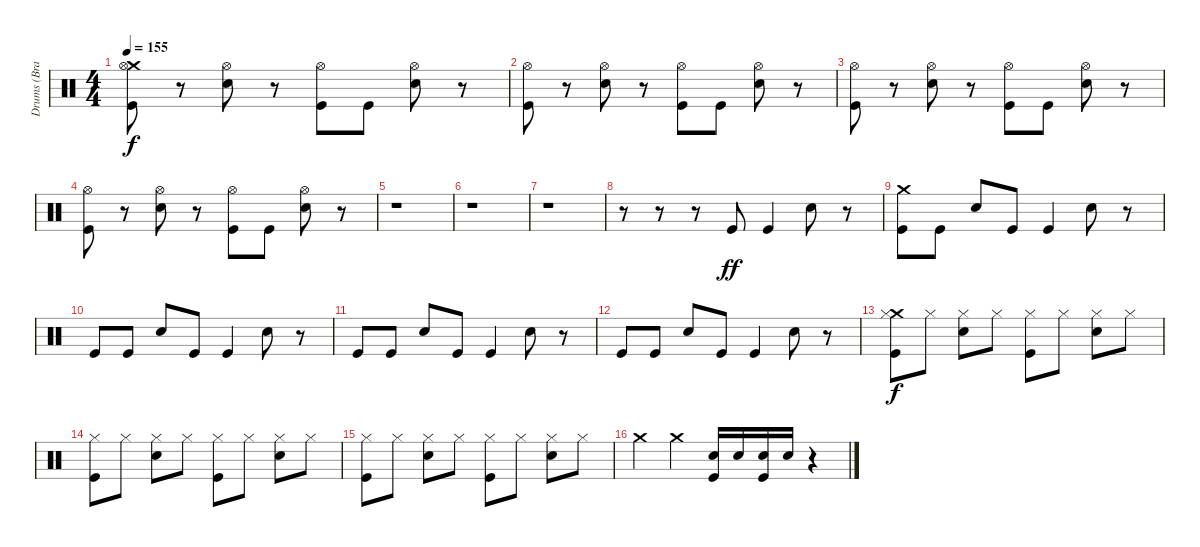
\track ("Drums (Bradie Webb)" "Drums (Bra") {instrument percussion}
\staff {score}
\articulation defaults
\ts (4 4)
\tempo 155
\clef neutral
\ks c
("Crash medium (hit)" "Hi-Hat (open)" "Kick (hit)").8{dy f} r.8 ("Hi-Hat (open)" "Snare (hit) 2").8 r.8 ("Hi-Hat (open)" "Kick (hit)").8 "Kick (hit)".8 ("Hi-Hat (open)" "Snare (hit) 2").8 r.8 |
("Hi-Hat (open)" "Kick (hit)").8 r.8 ("Hi-Hat (open)" "Snare (hit) 2").8 r.8 ("Hi-Hat (open)" "Kick (hit)").8 "Kick (hit)".8 ("Hi-Hat (open)" "Snare (hit) 2").8 r.8 |
("Hi-Hat (open)" "Kick (hit)").8 r.8 ("Hi-Hat (open)" "Snare (hit) 2").8 r.8 ("Hi-Hat (open)" "Kick (hit)").8 "Kick (hit)".8 ("Hi-Hat (open)" "Snare (hit) 2").8 r.8 |
("Hi-Hat (open)" "Kick (hit)").8 r.8 ("Hi-Hat (open)" "Snare (hit) 2").8 r.8 ("Hi-Hat (open)" "Kick (hit)").8 "Kick (hit)".8 ("Hi-Hat (open)" "Snare (hit) 2").8 r.8 |
r.1 |
r.1 |
r.1 |
r.8 r.8 r.8 "Kick (hit)".8{dy ff} "Kick (hit)".4 "Snare (hit) 2".8 r.8 |
("Crash medium (hit)" "Kick (hit)").8 "Kick (hit)".8 "Snare (hit) 2".8 "Kick (hit)".8 "Kick (hit)".4 "Snare (hit) 2".8 r.8 |
"Kick (hit)".8 "Kick (hit)".8 "Snare (hit) 2".8 "Kick (hit)".8 "Kick (hit)".4 "Snare (hit) 2".8 r.8 |
"Kick (hit)".8 "Kick (hit)".8 "Snare (hit) 2".8 "Kick (hit)".8 "Kick (hit)".4 "Snare (hit) 2".8 r.8 |
"Kick (hit)".8 "Kick (hit)".8 "Snare (hit) 2".8 "Kick (hit)".8 "Kick (hit)".4 "Snare (hit) 2".8 r.8 |
("Crash medium (hit)" "Hi-Hat (closed)" "Kick (hit)").8{dy f} "Hi-Hat (closed)".8 ("Hi-Hat (closed)" "Snare (hit) 2").8 "Hi-Hat (closed)".8 ("Hi-Hat (closed)" "Kick (hit)").8 "Hi-Hat (closed)".8 ("Hi-Hat (closed)" "Snare (hit) 2").8 "Hi-Hat (closed)".8 |
("Hi-Hat (closed)" "Kick (hit)").8 "Hi-Hat (closed)".8 ("Hi-Hat (closed)" "Snare (hit) 2").8 "Hi-Hat (closed)".8 ("Hi-Hat (closed)" "Kick (hit)").8 "Hi-Hat (closed)".8 ("Hi-Hat (closed)" "Snare (hit) 2").8 "Hi-Hat (closed)".8 |
("Hi-Hat (closed)" "Kick (hit)").8 "Hi-Hat (closed)".8 ("Hi-Hat (closed)" "Snare (hit) 2").8 "Hi-Hat (closed)".8 ("Hi-Hat (closed)" "Kick (hit)").8 "Hi-Hat (closed)".8 ("Hi-Hat (closed)" "Snare (hit) 2").8 "Hi-Hat (closed)".8 |
"Crash medium (hit)".4 "Crash medium (hit)".4 ("Snare (hit) 2" "Kick (hit)").16 "Snare (hit) 2".16 ("Snare (hit) 2" "Kick (hit)").16 "Snare (hit) 2".16 r.4
